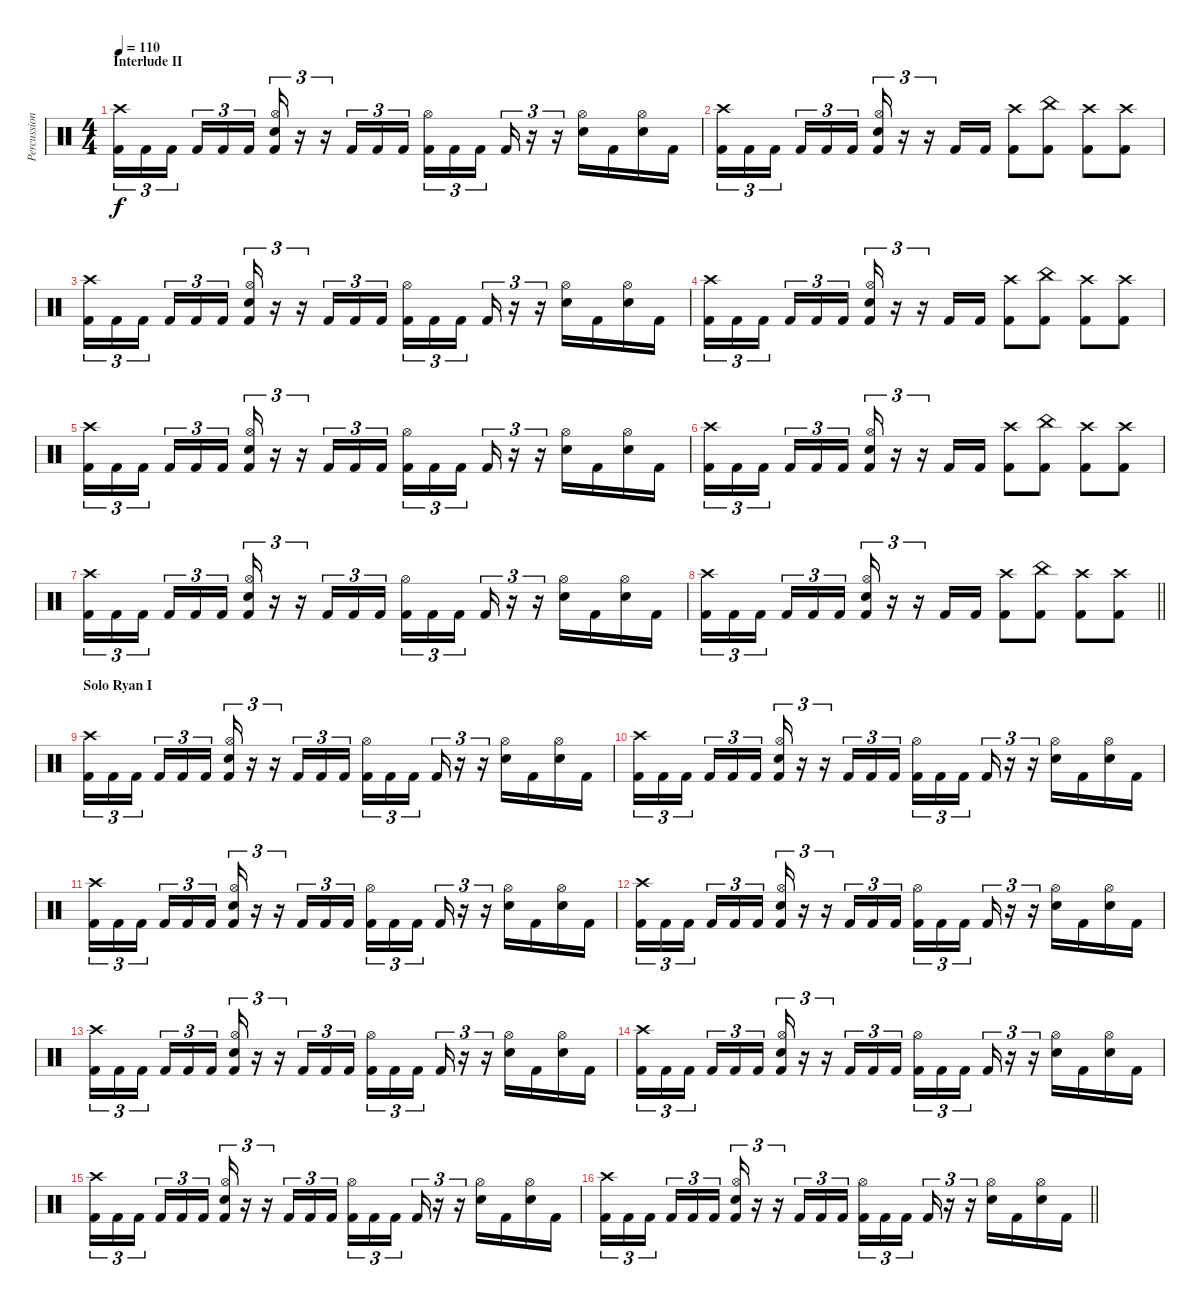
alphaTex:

\track ("Percussion" "Percussion") {instrument percussion}
\staff {score}
\articulation defaults
\ts (4 4)
\section ("" "Interlude II")
\tempo 110
\clef neutral
\ks c
("Crash high (hit)" "Kick (hit) 2").16{tu (3 2) dy f} "Kick (hit) 2".16{tu (3 2)} "Kick (hit) 2".16{tu (3 2) beam splitsecondary} "Kick (hit) 2".16{tu (3 2)} "Kick (hit) 2".16{tu (3 2)} "Kick (hit) 2".16{tu (3 2)} ("Hi-Hat (open)" "Electric Snare (hit)" "Kick (hit) 2").16{tu (3 2)} r.16{tu (3 2)} r.16{tu (3 2)} "Kick (hit) 2".16{tu (3 2)} "Kick (hit) 2".16{tu (3 2)} "Kick (hit) 2".16{tu (3 2)} ("Hi-Hat (open)" "Kick (hit) 2").16{tu (3 2)} "Kick (hit) 2".16{tu (3 2)} "Kick (hit) 2".16{tu (3 2) beam splitsecondary} "Kick (hit) 2".16{tu (3 2)} r.16{tu (3 2)} r.16{tu (3 2)} ("Hi-Hat (open)" "Electric Snare (hit)").16 "Kick (hit) 2".16 ("Hi-Hat (open)" "Electric Snare (hit)").16 "Kick (hit) 2".16 |
("Crash high (hit)" "Kick (hit) 2").16{tu (3 2)} "Kick (hit) 2".16{tu (3 2)} "Kick (hit) 2".16{tu (3 2) beam splitsecondary} "Kick (hit) 2".16{tu (3 2)} "Kick (hit) 2".16{tu (3 2)} "Kick (hit) 2".16{tu (3 2)} ("Hi-Hat (open)" "Electric Snare (hit)" "Kick (hit) 2").16{tu (3 2)} r.16{tu (3 2)} r.16{tu (3 2)} "Kick (hit) 2".16 "Kick (hit) 2".16 ("Crash high (hit)" "Kick (hit) 2").8 ("China (hit)" "Kick (hit) 2").8 ("Crash high (hit)" "Kick (hit) 2").8 ("Crash high (hit)" "Kick (hit) 2").8 |
("Crash high (hit)" "Kick (hit) 2").16{tu (3 2)} "Kick (hit) 2".16{tu (3 2)} "Kick (hit) 2".16{tu (3 2) beam splitsecondary} "Kick (hit) 2".16{tu (3 2)} "Kick (hit) 2".16{tu (3 2)} "Kick (hit) 2".16{tu (3 2)} ("Hi-Hat (open)" "Electric Snare (hit)" "Kick (hit) 2").16{tu (3 2)} r.16{tu (3 2)} r.16{tu (3 2)} "Kick (hit) 2".16{tu (3 2)} "Kick (hit) 2".16{tu (3 2)} "Kick (hit) 2".16{tu (3 2)} ("Hi-Hat (open)" "Kick (hit) 2").16{tu (3 2)} "Kick (hit) 2".16{tu (3 2)} "Kick (hit) 2".16{tu (3 2) beam splitsecondary} "Kick (hit) 2".16{tu (3 2)} r.16{tu (3 2)} r.16{tu (3 2)} ("Hi-Hat (open)" "Electric Snare (hit)").16 "Kick (hit) 2".16 ("Hi-Hat (open)" "Electric Snare (hit)").16 "Kick (hit) 2".16 |
("Crash high (hit)" "Kick (hit) 2").16{tu (3 2)} "Kick (hit) 2".16{tu (3 2)} "Kick (hit) 2".16{tu (3 2) beam splitsecondary} "Kick (hit) 2".16{tu (3 2)} "Kick (hit) 2".16{tu (3 2)} "Kick (hit) 2".16{tu (3 2)} ("Hi-Hat (open)" "Electric Snare (hit)" "Kick (hit) 2").16{tu (3 2)} r.16{tu (3 2)} r.16{tu (3 2)} "Kick (hit) 2".16 "Kick (hit) 2".16 ("Crash high (hit)" "Kick (hit) 2").8 ("China (hit)" "Kick (hit) 2").8 ("Crash high (hit)" "Kick (hit) 2").8 ("Crash high (hit)" "Kick (hit) 2").8 |
("Crash high (hit)" "Kick (hit) 2").16{tu (3 2)} "Kick (hit) 2".16{tu (3 2)} "Kick (hit) 2".16{tu (3 2) beam splitsecondary} "Kick (hit) 2".16{tu (3 2)} "Kick (hit) 2".16{tu (3 2)} "Kick (hit) 2".16{tu (3 2)} ("Hi-Hat (open)" "Electric Snare (hit)" "Kick (hit) 2").16{tu (3 2)} r.16{tu (3 2)} r.16{tu (3 2)} "Kick (hit) 2".16{tu (3 2)} "Kick (hit) 2".16{tu (3 2)} "Kick (hit) 2".16{tu (3 2)} ("Hi-Hat (open)" "Kick (hit) 2").16{tu (3 2)} "Kick (hit) 2".16{tu (3 2)} "Kick (hit) 2".16{tu (3 2) beam splitsecondary} "Kick (hit) 2".16{tu (3 2)} r.16{tu (3 2)} r.16{tu (3 2)} ("Hi-Hat (open)" "Electric Snare (hit)").16 "Kick (hit) 2".16 ("Hi-Hat (open)" "Electric Snare (hit)").16 "Kick (hit) 2".16 |
("Crash high (hit)" "Kick (hit) 2").16{tu (3 2)} "Kick (hit) 2".16{tu (3 2)} "Kick (hit) 2".16{tu (3 2) beam splitsecondary} "Kick (hit) 2".16{tu (3 2)} "Kick (hit) 2".16{tu (3 2)} "Kick (hit) 2".16{tu (3 2)} ("Hi-Hat (open)" "Electric Snare (hit)" "Kick (hit) 2").16{tu (3 2)} r.16{tu (3 2)} r.16{tu (3 2)} "Kick (hit) 2".16 "Kick (hit) 2".16 ("Crash high (hit)" "Kick (hit) 2").8 ("China (hit)" "Kick (hit) 2").8 ("Crash high (hit)" "Kick (hit) 2").8 ("Crash high (hit)" "Kick (hit) 2").8 |
("Crash high (hit)" "Kick (hit) 2").16{tu (3 2)} "Kick (hit) 2".16{tu (3 2)} "Kick (hit) 2".16{tu (3 2) beam splitsecondary} "Kick (hit) 2".16{tu (3 2)} "Kick (hit) 2".16{tu (3 2)} "Kick (hit) 2".16{tu (3 2)} ("Hi-Hat (open)" "Electric Snare (hit)" "Kick (hit) 2").16{tu (3 2)} r.16{tu (3 2)} r.16{tu (3 2)} "Kick (hit) 2".16{tu (3 2)} "Kick (hit) 2".16{tu (3 2)} "Kick (hit) 2".16{tu (3 2)} ("Hi-Hat (open)" "Kick (hit) 2").16{tu (3 2)} "Kick (hit) 2".16{tu (3 2)} "Kick (hit) 2".16{tu (3 2) beam splitsecondary} "Kick (hit) 2".16{tu (3 2)} r.16{tu (3 2)} r.16{tu (3 2)} ("Hi-Hat (open)" "Electric Snare (hit)").16 "Kick (hit) 2".16 ("Hi-Hat (open)" "Electric Snare (hit)").16 "Kick (hit) 2".16 |
\barLineRight lightlight
("Crash high (hit)" "Kick (hit) 2").16{tu (3 2)} "Kick (hit) 2".16{tu (3 2)} "Kick (hit) 2".16{tu (3 2) beam splitsecondary} "Kick (hit) 2".16{tu (3 2)} "Kick (hit) 2".16{tu (3 2)} "Kick (hit) 2".16{tu (3 2)} ("Hi-Hat (open)" "Electric Snare (hit)" "Kick (hit) 2").16{tu (3 2)} r.16{tu (3 2)} r.16{tu (3 2)} "Kick (hit) 2".16 "Kick (hit) 2".16 ("Crash high (hit)" "Kick (hit) 2").8 ("China (hit)" "Kick (hit) 2").8 ("Crash high (hit)" "Kick (hit) 2").8 ("Crash high (hit)" "Kick (hit) 2").8 |
\section ("" "Solo Ryan I")
("Crash high (hit)" "Kick (hit) 2").16{tu (3 2)} "Kick (hit) 2".16{tu (3 2)} "Kick (hit) 2".16{tu (3 2) beam splitsecondary} "Kick (hit) 2".16{tu (3 2)} "Kick (hit) 2".16{tu (3 2)} "Kick (hit) 2".16{tu (3 2)} ("Hi-Hat (open)" "Electric Snare (hit)" "Kick (hit) 2").16{tu (3 2)} r.16{tu (3 2)} r.16{tu (3 2)} "Kick (hit) 2".16{tu (3 2)} "Kick (hit) 2".16{tu (3 2)} "Kick (hit) 2".16{tu (3 2)} ("Hi-Hat (open)" "Kick (hit) 2").16{tu (3 2)} "Kick (hit) 2".16{tu (3 2)} "Kick (hit) 2".16{tu (3 2) beam splitsecondary} "Kick (hit) 2".16{tu (3 2)} r.16{tu (3 2)} r.16{tu (3 2)} ("Hi-Hat (open)" "Electric Snare (hit)").16 "Kick (hit) 2".16 ("Hi-Hat (open)" "Electric Snare (hit)").16 "Kick (hit) 2".16 |
("Crash high (hit)" "Kick (hit) 2").16{tu (3 2)} "Kick (hit) 2".16{tu (3 2)} "Kick (hit) 2".16{tu (3 2) beam splitsecondary} "Kick (hit) 2".16{tu (3 2)} "Kick (hit) 2".16{tu (3 2)} "Kick (hit) 2".16{tu (3 2)} ("Hi-Hat (open)" "Electric Snare (hit)" "Kick (hit) 2").16{tu (3 2)} r.16{tu (3 2)} r.16{tu (3 2)} "Kick (hit) 2".16{tu (3 2)} "Kick (hit) 2".16{tu (3 2)} "Kick (hit) 2".16{tu (3 2)} ("Hi-Hat (open)" "Kick (hit) 2").16{tu (3 2)} "Kick (hit) 2".16{tu (3 2)} "Kick (hit) 2".16{tu (3 2) beam splitsecondary} "Kick (hit) 2".16{tu (3 2)} r.16{tu (3 2)} r.16{tu (3 2)} ("Hi-Hat (open)" "Electric Snare (hit)").16 "Kick (hit) 2".16 ("Hi-Hat (open)" "Electric Snare (hit)").16 "Kick (hit) 2".16 |
("Crash high (hit)" "Kick (hit) 2").16{tu (3 2)} "Kick (hit) 2".16{tu (3 2)} "Kick (hit) 2".16{tu (3 2) beam splitsecondary} "Kick (hit) 2".16{tu (3 2)} "Kick (hit) 2".16{tu (3 2)} "Kick (hit) 2".16{tu (3 2)} ("Hi-Hat (open)" "Electric Snare (hit)" "Kick (hit) 2").16{tu (3 2)} r.16{tu (3 2)} r.16{tu (3 2)} "Kick (hit) 2".16{tu (3 2)} "Kick (hit) 2".16{tu (3 2)} "Kick (hit) 2".16{tu (3 2)} ("Hi-Hat (open)" "Kick (hit) 2").16{tu (3 2)} "Kick (hit) 2".16{tu (3 2)} "Kick (hit) 2".16{tu (3 2) beam splitsecondary} "Kick (hit) 2".16{tu (3 2)} r.16{tu (3 2)} r.16{tu (3 2)} ("Hi-Hat (open)" "Electric Snare (hit)").16 "Kick (hit) 2".16 ("Hi-Hat (open)" "Electric Snare (hit)").16 "Kick (hit) 2".16 |
("Crash high (hit)" "Kick (hit) 2").16{tu (3 2)} "Kick (hit) 2".16{tu (3 2)} "Kick (hit) 2".16{tu (3 2) beam splitsecondary} "Kick (hit) 2".16{tu (3 2)} "Kick (hit) 2".16{tu (3 2)} "Kick (hit) 2".16{tu (3 2)} ("Hi-Hat (open)" "Electric Snare (hit)" "Kick (hit) 2").16{tu (3 2)} r.16{tu (3 2)} r.16{tu (3 2)} "Kick (hit) 2".16{tu (3 2)} "Kick (hit) 2".16{tu (3 2)} "Kick (hit) 2".16{tu (3 2)} ("Hi-Hat (open)" "Kick (hit) 2").16{tu (3 2)} "Kick (hit) 2".16{tu (3 2)} "Kick (hit) 2".16{tu (3 2) beam splitsecondary} "Kick (hit) 2".16{tu (3 2)} r.16{tu (3 2)} r.16{tu (3 2)} ("Hi-Hat (open)" "Electric Snare (hit)").16 "Kick (hit) 2".16 ("Hi-Hat (open)" "Electric Snare (hit)").16 "Kick (hit) 2".16 |
("Crash high (hit)" "Kick (hit) 2").16{tu (3 2)} "Kick (hit) 2".16{tu (3 2)} "Kick (hit) 2".16{tu (3 2) beam splitsecondary} "Kick (hit) 2".16{tu (3 2)} "Kick (hit) 2".16{tu (3 2)} "Kick (hit) 2".16{tu (3 2)} ("Hi-Hat (open)" "Electric Snare (hit)" "Kick (hit) 2").16{tu (3 2)} r.16{tu (3 2)} r.16{tu (3 2)} "Kick (hit) 2".16{tu (3 2)} "Kick (hit) 2".16{tu (3 2)} "Kick (hit) 2".16{tu (3 2)} ("Hi-Hat (open)" "Kick (hit) 2").16{tu (3 2)} "Kick (hit) 2".16{tu (3 2)} "Kick (hit) 2".16{tu (3 2) beam splitsecondary} "Kick (hit) 2".16{tu (3 2)} r.16{tu (3 2)} r.16{tu (3 2)} ("Hi-Hat (open)" "Electric Snare (hit)").16 "Kick (hit) 2".16 ("Hi-Hat (open)" "Electric Snare (hit)").16 "Kick (hit) 2".16 |
("Crash high (hit)" "Kick (hit) 2").16{tu (3 2)} "Kick (hit) 2".16{tu (3 2)} "Kick (hit) 2".16{tu (3 2) beam splitsecondary} "Kick (hit) 2".16{tu (3 2)} "Kick (hit) 2".16{tu (3 2)} "Kick (hit) 2".16{tu (3 2)} ("Hi-Hat (open)" "Electric Snare (hit)" "Kick (hit) 2").16{tu (3 2)} r.16{tu (3 2)} r.16{tu (3 2)} "Kick (hit) 2".16{tu (3 2)} "Kick (hit) 2".16{tu (3 2)} "Kick (hit) 2".16{tu (3 2)} ("Hi-Hat (open)" "Kick (hit) 2").16{tu (3 2)} "Kick (hit) 2".16{tu (3 2)} "Kick (hit) 2".16{tu (3 2) beam splitsecondary} "Kick (hit) 2".16{tu (3 2)} r.16{tu (3 2)} r.16{tu (3 2)} ("Hi-Hat (open)" "Electric Snare (hit)").16 "Kick (hit) 2".16 ("Hi-Hat (open)" "Electric Snare (hit)").16 "Kick (hit) 2".16 |
("Crash high (hit)" "Kick (hit) 2").16{tu (3 2)} "Kick (hit) 2".16{tu (3 2)} "Kick (hit) 2".16{tu (3 2) beam splitsecondary} "Kick (hit) 2".16{tu (3 2)} "Kick (hit) 2".16{tu (3 2)} "Kick (hit) 2".16{tu (3 2)} ("Hi-Hat (open)" "Electric Snare (hit)" "Kick (hit) 2").16{tu (3 2)} r.16{tu (3 2)} r.16{tu (3 2)} "Kick (hit) 2".16{tu (3 2)} "Kick (hit) 2".16{tu (3 2)} "Kick (hit) 2".16{tu (3 2)} ("Hi-Hat (open)" "Kick (hit) 2").16{tu (3 2)} "Kick (hit) 2".16{tu (3 2)} "Kick (hit) 2".16{tu (3 2) beam splitsecondary} "Kick (hit) 2".16{tu (3 2)} r.16{tu (3 2)} r.16{tu (3 2)} ("Hi-Hat (open)" "Electric Snare (hit)").16 "Kick (hit) 2".16 ("Hi-Hat (open)" "Electric Snare (hit)").16 "Kick (hit) 2".16 |
\barLineRight lightlight
("Crash high (hit)" "Kick (hit) 2").16{tu (3 2)} "Kick (hit) 2".16{tu (3 2)} "Kick (hit) 2".16{tu (3 2) beam splitsecondary} "Kick (hit) 2".16{tu (3 2)} "Kick (hit) 2".16{tu (3 2)} "Kick (hit) 2".16{tu (3 2)} ("Hi-Hat (open)" "Electric Snare (hit)" "Kick (hit) 2").16{tu (3 2)} r.16{tu (3 2)} r.16{tu (3 2)} "Kick (hit) 2".16{tu (3 2)} "Kick (hit) 2".16{tu (3 2)} "Kick (hit) 2".16{tu (3 2)} ("Hi-Hat (open)" "Kick (hit) 2").16{tu (3 2)} "Kick (hit) 2".16{tu (3 2)} "Kick (hit) 2".16{tu (3 2) beam splitsecondary} "Kick (hit) 2".16{tu (3 2)} r.16{tu (3 2)} r.16{tu (3 2)} ("Hi-Hat (open)" "Electric Snare (hit)").16 "Kick (hit) 2".16 ("Hi-Hat (open)" "Electric Snare (hit)").16 "Kick (hit) 2".16
